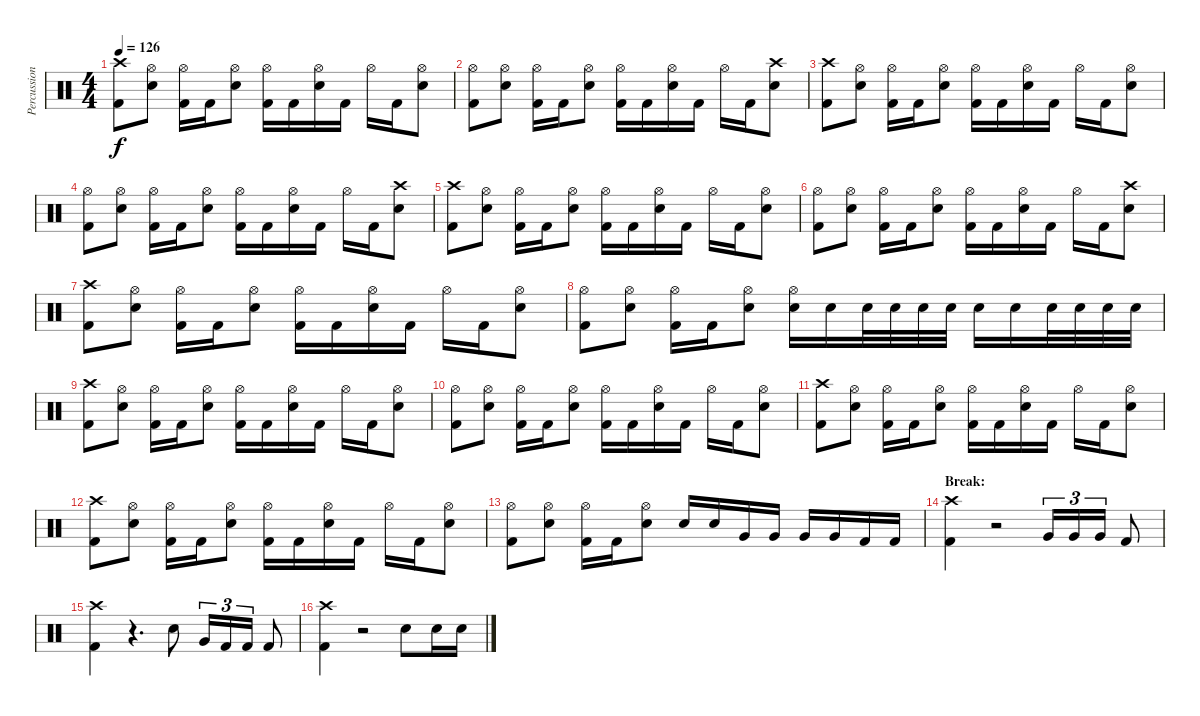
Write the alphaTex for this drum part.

\track ("Percussion" "Percussion") {instrument percussion}
\staff {score}
\articulation defaults
\ts (4 4)
\tempo 126
\clef neutral
\ks c
("Crash high (hit)" "Kick (hit) 2").8{dy f} ("Hi-Hat (open)" "Snare (hit) 2").8 ("Hi-Hat (open)" "Kick (hit) 2").16 "Kick (hit) 2".16 ("Hi-Hat (open)" "Snare (hit) 2").8 ("Hi-Hat (open)" "Kick (hit) 2").16 "Kick (hit) 2".16 ("Hi-Hat (open)" "Snare (hit) 2").16 "Kick (hit) 2".16 "Hi-Hat (open)".16 "Kick (hit) 2".16 ("Hi-Hat (open)" "Snare (hit) 2").8 |
("Hi-Hat (open)" "Kick (hit) 2").8 ("Hi-Hat (open)" "Snare (hit) 2").8 ("Hi-Hat (open)" "Kick (hit) 2").16 "Kick (hit) 2".16 ("Hi-Hat (open)" "Snare (hit) 2").8 ("Hi-Hat (open)" "Kick (hit) 2").16 "Kick (hit) 2".16 ("Hi-Hat (open)" "Snare (hit) 2").16 "Kick (hit) 2".16 "Hi-Hat (open)".16 "Kick (hit) 2".16 ("Crash high (hit)" "Snare (hit) 2").8 |
("Crash high (hit)" "Kick (hit) 2").8 ("Hi-Hat (open)" "Snare (hit) 2").8 ("Hi-Hat (open)" "Kick (hit) 2").16 "Kick (hit) 2".16 ("Hi-Hat (open)" "Snare (hit) 2").8 ("Hi-Hat (open)" "Kick (hit) 2").16 "Kick (hit) 2".16 ("Hi-Hat (open)" "Snare (hit) 2").16 "Kick (hit) 2".16 "Hi-Hat (open)".16 "Kick (hit) 2".16 ("Hi-Hat (open)" "Snare (hit) 2").8 |
("Hi-Hat (open)" "Kick (hit) 2").8 ("Hi-Hat (open)" "Snare (hit) 2").8 ("Hi-Hat (open)" "Kick (hit) 2").16 "Kick (hit) 2".16 ("Hi-Hat (open)" "Snare (hit) 2").8 ("Hi-Hat (open)" "Kick (hit) 2").16 "Kick (hit) 2".16 ("Hi-Hat (open)" "Snare (hit) 2").16 "Kick (hit) 2".16 "Hi-Hat (open)".16 "Kick (hit) 2".16 ("Crash high (hit)" "Snare (hit) 2").8 |
("Crash high (hit)" "Kick (hit) 2").8 ("Hi-Hat (open)" "Snare (hit) 2").8 ("Hi-Hat (open)" "Kick (hit) 2").16 "Kick (hit) 2".16 ("Hi-Hat (open)" "Snare (hit) 2").8 ("Hi-Hat (open)" "Kick (hit) 2").16 "Kick (hit) 2".16 ("Hi-Hat (open)" "Snare (hit) 2").16 "Kick (hit) 2".16 "Hi-Hat (open)".16 "Kick (hit) 2".16 ("Hi-Hat (open)" "Snare (hit) 2").8 |
("Hi-Hat (open)" "Kick (hit) 2").8 ("Hi-Hat (open)" "Snare (hit) 2").8 ("Hi-Hat (open)" "Kick (hit) 2").16 "Kick (hit) 2".16 ("Hi-Hat (open)" "Snare (hit) 2").8 ("Hi-Hat (open)" "Kick (hit) 2").16 "Kick (hit) 2".16 ("Hi-Hat (open)" "Snare (hit) 2").16 "Kick (hit) 2".16 "Hi-Hat (open)".16 "Kick (hit) 2".16 ("Crash high (hit)" "Snare (hit) 2").8 |
("Crash high (hit)" "Kick (hit) 2").8 ("Hi-Hat (open)" "Snare (hit) 2").8 ("Hi-Hat (open)" "Kick (hit) 2").16 "Kick (hit) 2".16 ("Hi-Hat (open)" "Snare (hit) 2").8 ("Hi-Hat (open)" "Kick (hit) 2").16 "Kick (hit) 2".16 ("Hi-Hat (open)" "Snare (hit) 2").16 "Kick (hit) 2".16 "Hi-Hat (open)".16 "Kick (hit) 2".16 ("Hi-Hat (open)" "Snare (hit) 2").8 |
("Hi-Hat (open)" "Kick (hit) 2").8 ("Hi-Hat (open)" "Snare (hit) 2").8 ("Hi-Hat (open)" "Kick (hit) 2").16 "Kick (hit) 2".16 ("Hi-Hat (open)" "Snare (hit) 2").8 ("Hi-Hat (open)" "Snare (hit) 2").16 "Snare (hit) 2".16 "Snare (hit) 2".32 "Snare (hit) 2".32 "Snare (hit) 2".32 "Snare (hit) 2".32 "Snare (hit) 2".16 "Snare (hit) 2".16 "Snare (hit) 2".32 "Snare (hit) 2".32 "Snare (hit) 2".32 "Snare (hit) 2".32 |
("Crash high (hit)" "Kick (hit) 2").8 ("Hi-Hat (open)" "Snare (hit) 2").8 ("Hi-Hat (open)" "Kick (hit) 2").16 "Kick (hit) 2".16 ("Hi-Hat (open)" "Snare (hit) 2").8 ("Hi-Hat (open)" "Kick (hit) 2").16 "Kick (hit) 2".16 ("Hi-Hat (open)" "Snare (hit) 2").16 "Kick (hit) 2".16 "Hi-Hat (open)".16 "Kick (hit) 2".16 ("Hi-Hat (open)" "Snare (hit) 2").8 |
("Hi-Hat (open)" "Kick (hit) 2").8 ("Hi-Hat (open)" "Snare (hit) 2").8 ("Hi-Hat (open)" "Kick (hit) 2").16 "Kick (hit) 2".16 ("Hi-Hat (open)" "Snare (hit) 2").8 ("Hi-Hat (open)" "Kick (hit) 2").16 "Kick (hit) 2".16 ("Hi-Hat (open)" "Snare (hit) 2").16 "Kick (hit) 2".16 "Hi-Hat (open)".16 "Kick (hit) 2".16 ("Hi-Hat (open)" "Snare (hit) 2").8 |
("Crash high (hit)" "Kick (hit) 2").8 ("Hi-Hat (open)" "Snare (hit) 2").8 ("Hi-Hat (open)" "Kick (hit) 2").16 "Kick (hit) 2".16 ("Hi-Hat (open)" "Snare (hit) 2").8 ("Hi-Hat (open)" "Kick (hit) 2").16 "Kick (hit) 2".16 ("Hi-Hat (open)" "Snare (hit) 2").16 "Kick (hit) 2".16 "Hi-Hat (open)".16 "Kick (hit) 2".16 ("Hi-Hat (open)" "Snare (hit) 2").8 |
("Crash high (hit)" "Kick (hit) 2").8 ("Hi-Hat (open)" "Snare (hit) 2").8 ("Hi-Hat (open)" "Kick (hit) 2").16 "Kick (hit) 2".16 ("Hi-Hat (open)" "Snare (hit) 2").8 ("Hi-Hat (open)" "Kick (hit) 2").16 "Kick (hit) 2".16 ("Hi-Hat (open)" "Snare (hit) 2").16 "Kick (hit) 2".16 "Hi-Hat (open)".16 "Kick (hit) 2".16 ("Hi-Hat (open)" "Snare (hit) 2").8 |
("Hi-Hat (open)" "Kick (hit) 2").8 ("Hi-Hat (open)" "Snare (hit) 2").8 ("Hi-Hat (open)" "Kick (hit) 2").16 "Kick (hit) 2".16 ("Hi-Hat (open)" "Snare (hit) 2").8 "Snare (hit) 2".16 "Snare (hit) 2".16 "Very Low Tom (hit)".16 "Very Low Tom (hit)".16 "Very Low Tom (hit)".16 "Very Low Tom (hit)".16 "Kick (hit) 2".16 "Kick (hit) 2".16 |
\section ("" "Break:")
("Crash high (hit)" "Kick (hit) 2").4 r.2 "Very Low Tom (hit)".16{tu (3 2)} "Very Low Tom (hit)".16{tu (3 2)} "Very Low Tom (hit)".16{tu (3 2)} "Kick (hit) 2".8 |
("Crash high (hit)" "Kick (hit) 2").4 r.4{d} "Snare (hit) 2".8 "Very Low Tom (hit)".16{tu (3 2)} "Kick (hit) 2".16{tu (3 2)} "Kick (hit) 2".16{tu (3 2)} "Kick (hit) 2".8 |
("Crash high (hit)" "Kick (hit) 2").4 r.2 "Snare (hit) 2".8 "Snare (hit) 2".16 "Snare (hit) 2".16
